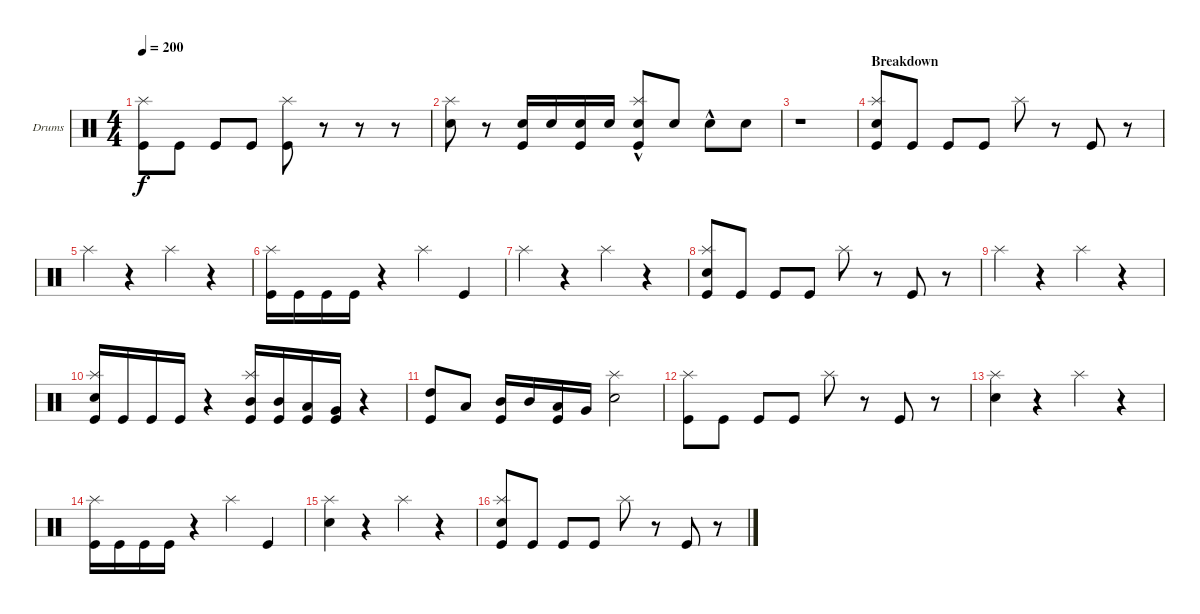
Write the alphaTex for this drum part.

\defaultSystemsLayout 4
\bracketExtendMode groupsimilarinstruments
\firstSystemTrackNameOrientation horizontal
\otherSystemsTrackNameOrientation horizontal
\track ("Drumkit" "Drums") {instrument percussion}
\staff {score}
\articulation defaults
\ts (4 4)
\tempo 200
\clef neutral
\ks c
("Kick (hit)" "Splash (hit)").8{dy f} "Kick (hit)".8 "Kick (hit)".8 "Kick (hit)".8 ("Kick (hit)" "Splash (hit)").8 r.8 r.8 r.8 |
("Snare (hit) 2" "Splash (hit)").8 r.8 ("Kick (hit)" "Snare (hit) 2").16 "Snare (hit) 2".16 ("Kick (hit)" "Snare (hit) 2").16 "Snare (hit) 2".16 ("Kick (hit)" "Splash (hit)" "Snare (hit) 2"{hac}).8 "Snare (hit) 2".8 "Snare (hit) 2"{hac}.8 "Snare (hit) 2".8 |
r.1 |
\section ("" "Breakdown")
("Splash (hit)" "Kick (hit)" "Snare (hit) 2").8 "Kick (hit)".8 "Kick (hit)".8 "Kick (hit)".8 "Splash (hit)".8 r.8 "Kick (hit)".8 r.8 |
"Splash (hit)".4 r.4 "Splash (hit)".4 r.4 |
("Kick (hit)" "Splash (hit)").16 "Kick (hit)".16 "Kick (hit)".16 "Kick (hit)".16 r.4 "Splash (hit)".4 "Kick (hit)".4 |
"Splash (hit)".4 r.4 "Splash (hit)".4 r.4 |
("Splash (hit)" "Kick (hit)" "Snare (hit) 2").8 "Kick (hit)".8 "Kick (hit)".8 "Kick (hit)".8 "Splash (hit)".8 r.8 "Kick (hit)".8 r.8 |
"Splash (hit)".4 r.4 "Splash (hit)".4 r.4 |
("Kick (hit)" "Splash (hit)" "Snare (hit) 2").16 "Kick (hit)".16 "Kick (hit)".16 "Kick (hit)".16 r.4 ("Kick (hit)" "Splash (hit)" "Mid Tom (hit)").16 ("Kick (hit)" "Mid Tom (hit)").16 ("Kick (hit)" "Low Tom (hit)").16 ("Kick (hit)" "Very Low Tom (hit)").16 r.4 |
("High Tom (hit)" "Kick (hit)").8 "Low Tom (hit)".8 ("Mid Tom (hit)" "Kick (hit)").16 "Mid Tom (hit)".16 ("Low Tom (hit)" "Kick (hit)").16 "Very Low Tom (hit)".16 ("Snare (hit) 2" "Splash (hit)").2 |
("Splash (hit)" "Kick (hit)").8 "Kick (hit)".8 "Kick (hit)".8 "Kick (hit)".8 "Splash (hit)".8 r.8 "Kick (hit)".8 r.8 |
("Splash (hit)" "Snare (hit) 2").4 r.4 "Splash (hit)".4 r.4 |
("Kick (hit)" "Splash (hit)").16 "Kick (hit)".16 "Kick (hit)".16 "Kick (hit)".16 r.4 "Splash (hit)".4 "Kick (hit)".4 |
("Splash (hit)" "Snare (hit) 2").4 r.4 "Splash (hit)".4 r.4 |
("Splash (hit)" "Kick (hit)" "Snare (hit) 2").8 "Kick (hit)".8 "Kick (hit)".8 "Kick (hit)".8 "Splash (hit)".8 r.8 "Kick (hit)".8 r.8
